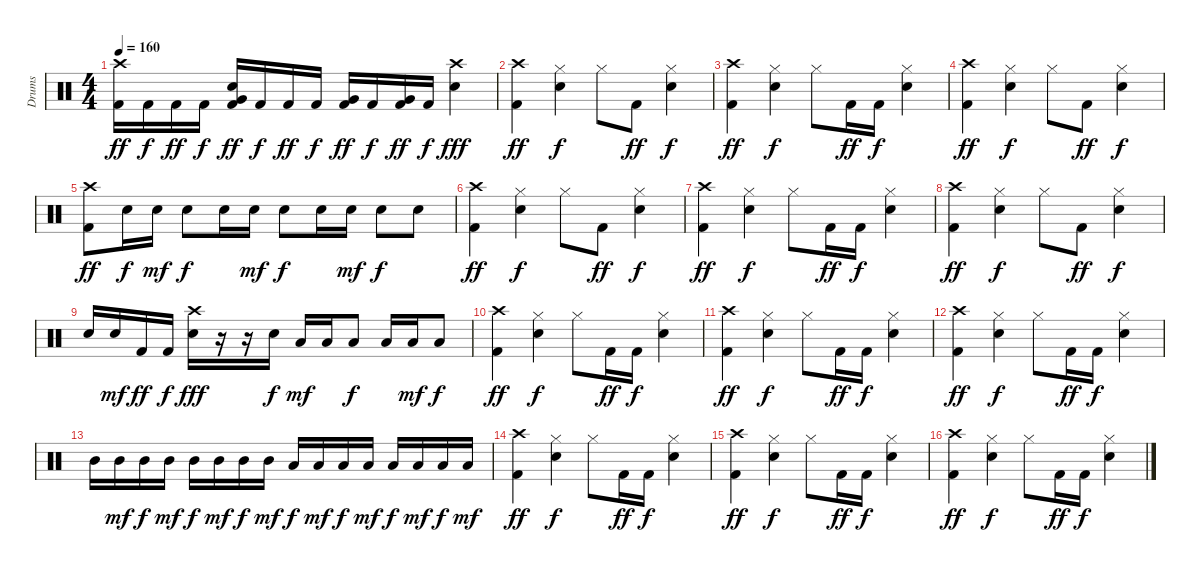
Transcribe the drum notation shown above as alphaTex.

\track ("Drums" "Drums") {instrument percussion}
\staff {score}
\articulation defaults
\ts (4 4)
\tempo 160
\clef neutral
\ks c
("Crash high (hit)" "Kick (hit) 2").16{dy ff} "Kick (hit) 2".16{dy f} "Kick (hit) 2".16{dy ff} "Kick (hit) 2".16{dy f} ("Very Low Tom (hit)" "Snare (hit) 2" "Kick (hit) 2").16{dy ff} "Kick (hit) 2".16{dy f} "Kick (hit) 2".16{dy ff} "Kick (hit) 2".16{dy f} ("Very Low Tom (hit)" "Kick (hit) 2").16{dy ff} "Kick (hit) 2".16{dy f} ("Very Low Tom (hit)" "Kick (hit) 2").16{dy ff} "Kick (hit) 2".16{dy f} ("Crash high (hit)" "Snare (hit) 2").4{dy fff} |
("Crash high (hit)" "Kick (hit) 2").4{dy ff} ("Hi-Hat (closed)" "Snare (hit) 2").4{dy f} "Hi-Hat (closed)".8 "Kick (hit) 2".8{dy ff} ("Hi-Hat (closed)" "Snare (hit) 2").4{dy f} |
("Crash high (hit)" "Kick (hit) 2").4{dy ff} ("Hi-Hat (closed)" "Snare (hit) 2").4{dy f} "Hi-Hat (closed)".8 "Kick (hit) 2".16{dy ff} "Kick (hit) 2".16{dy f} ("Hi-Hat (closed)" "Snare (hit) 2").4 |
("Crash high (hit)" "Kick (hit) 2").4{dy ff} ("Hi-Hat (closed)" "Snare (hit) 2").4{dy f} "Hi-Hat (closed)".8 "Kick (hit) 2".8{dy ff} ("Hi-Hat (closed)" "Snare (hit) 2").4{dy f} |
("Crash high (hit)" "Kick (hit) 2").8{dy ff} "Snare (hit) 2".16{dy f} "Snare (hit) 2".16{dy mf} "Snare (hit) 2".8{dy f} "Snare (hit) 2".16 "Snare (hit) 2".16{dy mf} "Snare (hit) 2".8{dy f} "Snare (hit) 2".16 "Snare (hit) 2".16{dy mf} "Snare (hit) 2".8{dy f} "Snare (hit) 2".8 |
("Crash high (hit)" "Kick (hit) 2").4{dy ff} ("Hi-Hat (closed)" "Snare (hit) 2").4{dy f} "Hi-Hat (closed)".8 "Kick (hit) 2".8{dy ff} ("Hi-Hat (closed)" "Snare (hit) 2").4{dy f} |
("Crash high (hit)" "Kick (hit) 2").4{dy ff} ("Hi-Hat (closed)" "Snare (hit) 2").4{dy f} "Hi-Hat (closed)".8 "Kick (hit) 2".16{dy ff} "Kick (hit) 2".16{dy f} ("Hi-Hat (closed)" "Snare (hit) 2").4 |
("Crash high (hit)" "Kick (hit) 2").4{dy ff} ("Hi-Hat (closed)" "Snare (hit) 2").4{dy f} "Hi-Hat (closed)".8 "Kick (hit) 2".8{dy ff} ("Hi-Hat (closed)" "Snare (hit) 2").4{dy f} |
"Snare (hit) 2".16 "Snare (hit) 2".16{dy mf} "Kick (hit) 2".16{dy ff} "Kick (hit) 2".16{dy f} ("Crash high (hit)" "Snare (hit) 2").16{dy fff} r.16 r.16 "Snare (hit) 2".16{dy f} "Low Tom (hit)".16{dy mf} "Low Tom (hit)".16 "Low Tom (hit)".8{dy f} "Low Tom (hit)".16 "Low Tom (hit)".16{dy mf} "Low Tom (hit)".8{dy f} |
("Crash high (hit)" "Kick (hit) 2").4{dy ff} ("Hi-Hat (closed)" "Snare (hit) 2").4{dy f} "Hi-Hat (closed)".8 "Kick (hit) 2".16{dy ff} "Kick (hit) 2".16{dy f} ("Hi-Hat (closed)" "Snare (hit) 2").4 |
("Crash high (hit)" "Kick (hit) 2").4{dy ff} ("Hi-Hat (closed)" "Snare (hit) 2").4{dy f} "Hi-Hat (closed)".8 "Kick (hit) 2".16{dy ff} "Kick (hit) 2".16{dy f} ("Hi-Hat (closed)" "Snare (hit) 2").4 |
("Crash high (hit)" "Kick (hit) 2").4{dy ff} ("Hi-Hat (closed)" "Snare (hit) 2").4{dy f} "Hi-Hat (closed)".8 "Kick (hit) 2".16{dy ff} "Kick (hit) 2".16{dy f} ("Hi-Hat (closed)" "Snare (hit) 2").4 |
"Mid Tom (hit)".16 "Mid Tom (hit)".16{dy mf} "Mid Tom (hit)".16{dy f} "Mid Tom (hit)".16{dy mf} "Mid Tom (hit)".16{dy f} "Mid Tom (hit)".16{dy mf} "Mid Tom (hit)".16{dy f} "Mid Tom (hit)".16{dy mf} "Low Tom (hit)".16{dy f} "Low Tom (hit)".16{dy mf} "Low Tom (hit)".16{dy f} "Low Tom (hit)".16{dy mf} "Low Tom (hit)".16{dy f} "Low Tom (hit)".16{dy mf} "Low Tom (hit)".16{dy f} "Low Tom (hit)".16{dy mf} |
("Crash high (hit)" "Kick (hit) 2").4{dy ff} ("Hi-Hat (closed)" "Snare (hit) 2").4{dy f} "Hi-Hat (closed)".8 "Kick (hit) 2".16{dy ff} "Kick (hit) 2".16{dy f} ("Hi-Hat (closed)" "Snare (hit) 2").4 |
("Crash high (hit)" "Kick (hit) 2").4{dy ff} ("Hi-Hat (closed)" "Snare (hit) 2").4{dy f} "Hi-Hat (closed)".8 "Kick (hit) 2".16{dy ff} "Kick (hit) 2".16{dy f} ("Hi-Hat (closed)" "Snare (hit) 2").4 |
("Crash high (hit)" "Kick (hit) 2").4{dy ff} ("Hi-Hat (closed)" "Snare (hit) 2").4{dy f} "Hi-Hat (closed)".8 "Kick (hit) 2".16{dy ff} "Kick (hit) 2".16{dy f} ("Hi-Hat (closed)" "Snare (hit) 2").4
